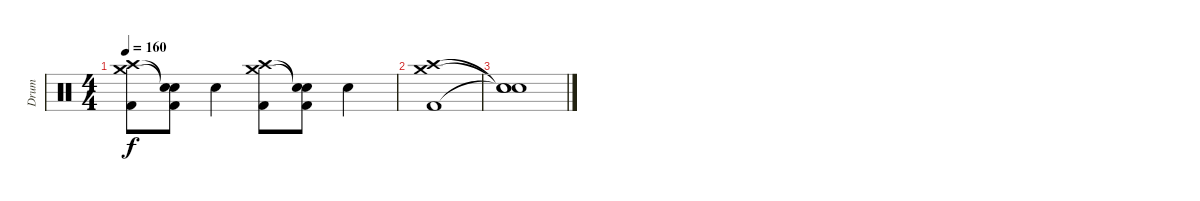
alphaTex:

\track ("Drum" "Drum") {instrument percussion}
\staff {score}
\articulation defaults
\ts (4 4)
\tempo 160
\clef neutral
\ks c
("Kick (hit) 2" "Crash high (hit)" "Crash medium (hit)").8{dy f} ("Kick (hit) 2" "Electric Snare (hit)"{t} "Snare (hit)"{t}).8 "Electric Snare (hit)".4 ("Kick (hit) 2" "Crash high (hit)" "Crash medium (hit)").8 ("Kick (hit) 2" "Snare (hit)"{t} "Snare (hit)"{t}).8 "Electric Snare (hit)".4 |
("Kick (hit) 2" "Crash high (hit)" "Crash medium (hit)").1 |
("Snare (hit)"{t} "Snare (hit)"{t} "Snare (hit)"{t}).1
